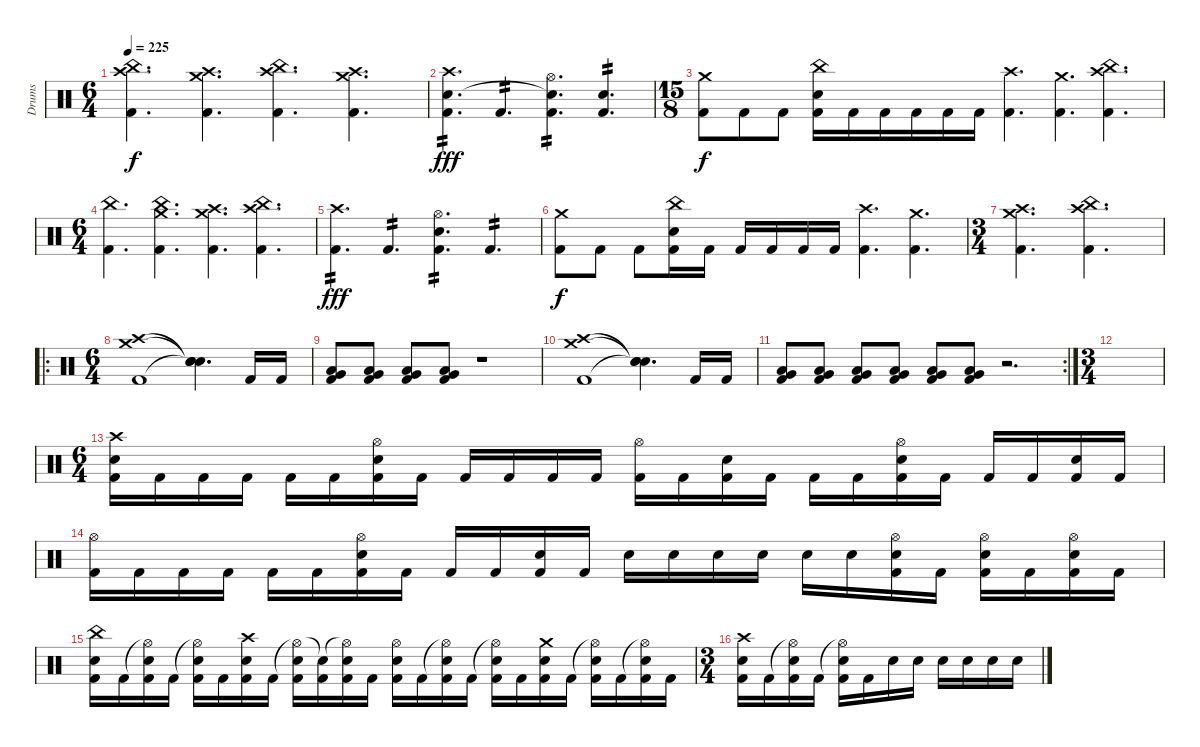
\track ("Drums" "Drums") {instrument percussion}
\staff {score}
\articulation defaults
\ts (6 4)
\tempo 225
\clef neutral
\ks c
("China (hit)" "Crash high (hit)" "Kick (hit) 2").4{d dy f} ("Crash medium (hit)" "Crash high (hit)" "Kick (hit) 2").4{d} ("China (hit)" "Crash high (hit)" "Kick (hit) 2").4{d} ("Crash medium (hit)" "Crash high (hit)" "Kick (hit) 2").4{d} |
("Crash high (hit)" "Snare (hit) 2" "Kick (hit) 2").4{d tp 2 dy fff} "Kick (hit) 2".4{d tp 2} ("Hi-Hat (open)" "Snare (hit) 2"{t} "Kick (hit) 2").4{d tp 2} ("Snare (hit) 2" "Kick (hit) 2").4{d tp 2} |
\ts (15 8)
("Crash medium (hit)" "Kick (hit) 2").8{dy f} "Kick (hit) 2".8 "Kick (hit) 2".8 ("China (hit)" "Snare (hit) 2" "Kick (hit) 2").16 "Kick (hit) 2".16 "Kick (hit) 2".16 "Kick (hit) 2".16 "Kick (hit) 2".16 "Kick (hit) 2".16 ("Crash high (hit)" "Kick (hit) 2").4{d} ("Crash medium (hit)" "Kick (hit) 2").4{d} ("China (hit)" "Crash high (hit)" "Kick (hit) 2").4{d} |
\ts (6 4)
("China (hit)" "Kick (hit) 2").4{d} ("Crash medium (hit)" "China (hit)" "Kick (hit) 2").4{d} ("Crash medium (hit)" "Crash high (hit)" "Kick (hit) 2").4{d} ("China (hit)" "Crash high (hit)" "Kick (hit) 2").4{d} |
("Crash high (hit)" "Kick (hit) 2").4{d tp 2 dy fff} "Kick (hit) 2".4{d tp 2} ("Hi-Hat (open)" "Snare (hit) 2" "Kick (hit) 2").4{d tp 2} "Kick (hit) 2".4{d tp 2} |
("Crash medium (hit)" "Kick (hit) 2").8{dy f} "Kick (hit) 2".8 "Kick (hit) 2".8 ("China (hit)" "Snare (hit) 2" "Kick (hit) 2").16 "Kick (hit) 2".16 "Kick (hit) 2".16 "Kick (hit) 2".16 "Kick (hit) 2".16 "Kick (hit) 2".16 ("Crash high (hit)" "Kick (hit) 2").4{d} ("Crash medium (hit)" "Kick (hit) 2").4{d} |
\ts (3 4)
("Crash medium (hit)" "Crash high (hit)" "Kick (hit) 2").4{d} ("China (hit)" "Crash high (hit)" "Kick (hit) 2").4{d} |
\ro
\ts (6 4)
("Crash medium (hit)" "Crash high (hit)" "Kick (hit) 2").1 ("Snare (hit)"{t} "Snare (hit)"{t} "Snare (hit)"{t}).4{d} "Kick (hit) 2".16 "Kick (hit) 2".16 |
("Very Low Tom (hit)" "Low Floor Tom (hit)" "Kick (hit) 2").8 ("Very Low Tom (hit)" "Low Floor Tom (hit)" "Kick (hit) 2").8 ("Very Low Tom (hit)" "Low Floor Tom (hit)" "Kick (hit) 2").8 ("Very Low Tom (hit)" "Low Floor Tom (hit)" "Kick (hit) 2").8 r.1 |
("Crash medium (hit)" "Crash high (hit)" "Kick (hit) 2").1 ("Snare (hit)"{t} "Snare (hit)"{t} "Snare (hit)"{t}).4{d} "Kick (hit) 2".16 "Kick (hit) 2".16 |
\rc 2
("Very Low Tom (hit)" "Low Floor Tom (hit)" "Kick (hit) 2").8 ("Very Low Tom (hit)" "Low Floor Tom (hit)" "Kick (hit) 2").8 ("Very Low Tom (hit)" "Low Floor Tom (hit)" "Kick (hit) 2").8 ("Very Low Tom (hit)" "Low Floor Tom (hit)" "Kick (hit) 2").8 ("Very Low Tom (hit)" "Low Floor Tom (hit)" "Kick (hit) 2").8 ("Very Low Tom (hit)" "Low Floor Tom (hit)" "Kick (hit) 2").8 r.2{d} |
\ts (3 4)
|
\ts (6 4)
("Crash high (hit)" "Snare (hit) 2" "Kick (hit) 2").16 "Kick (hit) 2".16 "Kick (hit) 2".16 "Kick (hit) 2".16 "Kick (hit) 2".16 "Kick (hit) 2".16 ("Hi-Hat (open)" "Snare (hit) 2" "Kick (hit) 2").16 "Kick (hit) 2".16 "Kick (hit) 2".16 "Kick (hit) 2".16 "Kick (hit) 2".16 "Kick (hit) 2".16 ("Hi-Hat (open)" "Kick (hit) 2").16 "Kick (hit) 2".16 ("Snare (hit) 2" "Kick (hit) 2").16 "Kick (hit) 2".16 "Kick (hit) 2".16 "Kick (hit) 2".16 ("Hi-Hat (open)" "Snare (hit) 2" "Kick (hit) 2").16 "Kick (hit) 2".16 "Kick (hit) 2".16 "Kick (hit) 2".16 ("Snare (hit) 2" "Kick (hit) 2").16 "Kick (hit) 2".16 |
("Hi-Hat (open)" "Kick (hit) 2").16 "Kick (hit) 2".16 "Kick (hit) 2".16 "Kick (hit) 2".16 "Kick (hit) 2".16 "Kick (hit) 2".16 ("Hi-Hat (open)" "Snare (hit) 2" "Kick (hit) 2").16 "Kick (hit) 2".16 "Kick (hit) 2".16 "Kick (hit) 2".16 ("Snare (hit) 2" "Kick (hit) 2").16 "Kick (hit) 2".16 "Snare (hit) 2".16 "Snare (hit) 2".16 "Snare (hit) 2".16 "Snare (hit) 2".16 "Snare (hit) 2".16 "Snare (hit) 2".16 ("Hi-Hat (open)" "Snare (hit) 2" "Kick (hit) 2").16 "Kick (hit) 2".16 ("Hi-Hat (open)" "Snare (hit) 2" "Kick (hit) 2").16 "Kick (hit) 2".16 ("Hi-Hat (open)" "Snare (hit) 2" "Kick (hit) 2").16 "Kick (hit) 2".16 |
("China (hit)" "Snare (hit) 2" "Kick (hit) 2").16 "Kick (hit) 2".16 ("Hi-Hat (open)"{t} "Snare (hit) 2" "Kick (hit) 2").16 "Kick (hit) 2".16 ("Hi-Hat (open)"{t} "Snare (hit) 2" "Kick (hit) 2").16 "Kick (hit) 2".16 ("Crash high (hit)" "Snare (hit) 2" "Kick (hit) 2").16 "Kick (hit) 2".16 ("Hi-Hat (open)"{t} "Snare (hit) 2" "Kick (hit) 2").16 ("Snare (hit)"{t} "Kick (hit) 2").16 ("Hi-Hat (open)"{t} "Snare (hit) 2" "Kick (hit) 2").16 "Kick (hit) 2".16 ("Hi-Hat (open)" "Snare (hit) 2" "Kick (hit) 2").16 "Kick (hit) 2".16 ("Hi-Hat (open)"{t} "Snare (hit) 2" "Kick (hit) 2").16 "Kick (hit) 2".16 ("Hi-Hat (open)"{t} "Snare (hit) 2" "Kick (hit) 2").16 "Kick (hit) 2".16 ("Crash medium (hit)" "Snare (hit) 2" "Kick (hit) 2").16 "Kick (hit) 2".16 ("Hi-Hat (open)"{t} "Snare (hit) 2" "Kick (hit) 2").16 "Kick (hit) 2".16 ("Hi-Hat (open)"{t} "Snare (hit) 2" "Kick (hit) 2").16 "Kick (hit) 2".16 |
\ts (3 4)
("Crash high (hit)" "Snare (hit) 2" "Kick (hit) 2").16 "Kick (hit) 2".16 ("Hi-Hat (open)"{t} "Snare (hit) 2" "Kick (hit) 2").16 "Kick (hit) 2".16 ("Hi-Hat (open)"{t} "Snare (hit) 2" "Kick (hit) 2").16 "Kick (hit) 2".16 "Snare (hit) 2".16 "Snare (hit) 2".16 "Snare (hit) 2".16 "Snare (hit) 2".16 "Snare (hit) 2".16 "Snare (hit) 2".16
